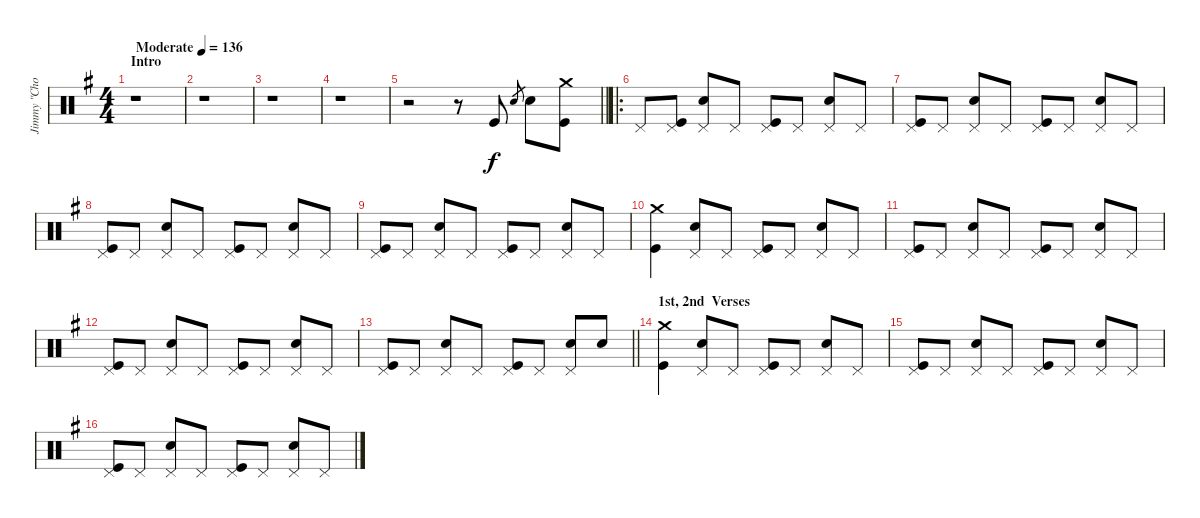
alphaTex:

\track ("Jimmy \"Chocolate\" Chalfant" "Jimmy \"Cho") {instrument percussion}
\staff {score}
\articulation defaults
\ts (4 4)
\section ("" "Intro")
\tempo (136 "Moderate")
\clef neutral
\ks g
r.1{dy f} |
r.1 |
r.1 |
r.1 |
\barLineRight lightlight
r.2 r.8 "Kick (hit)".8 "Snare (hit) 2".8{gr} "Snare (hit) 2".8 ("Crash medium (hit)" "Kick (hit)").8 |
\ro "Pedal Hi-Hat (hit)".8
("Pedal Hi-Hat (hit)" "Kick (hit)").8 ("Pedal Hi-Hat (hit)" "Snare (hit) 2").8 "Pedal Hi-Hat (hit)".8 ("Pedal Hi-Hat (hit)" "Kick (hit)").8 "Pedal Hi-Hat (hit)".8 ("Pedal Hi-Hat (hit)" "Snare (hit) 2").8 "Pedal Hi-Hat (hit)".8 |
("Pedal Hi-Hat (hit)" "Kick (hit)").8 "Pedal Hi-Hat (hit)".8 ("Pedal Hi-Hat (hit)" "Snare (hit) 2").8 "Pedal Hi-Hat (hit)".8 ("Pedal Hi-Hat (hit)" "Kick (hit)").8 "Pedal Hi-Hat (hit)".8 ("Pedal Hi-Hat (hit)" "Snare (hit) 2").8 "Pedal Hi-Hat (hit)".8 |
("Pedal Hi-Hat (hit)" "Kick (hit)").8 "Pedal Hi-Hat (hit)".8 ("Pedal Hi-Hat (hit)" "Snare (hit) 2").8 "Pedal Hi-Hat (hit)".8 ("Pedal Hi-Hat (hit)" "Kick (hit)").8 "Pedal Hi-Hat (hit)".8 ("Pedal Hi-Hat (hit)" "Snare (hit) 2").8 "Pedal Hi-Hat (hit)".8 |
("Pedal Hi-Hat (hit)" "Kick (hit)").8 "Pedal Hi-Hat (hit)".8 ("Pedal Hi-Hat (hit)" "Snare (hit) 2").8 "Pedal Hi-Hat (hit)".8 ("Pedal Hi-Hat (hit)" "Kick (hit)").8 "Pedal Hi-Hat (hit)".8 ("Pedal Hi-Hat (hit)" "Snare (hit) 2").8 "Pedal Hi-Hat (hit)".8 |
("Crash medium (hit)" "Kick (hit)").4 ("Pedal Hi-Hat (hit)" "Snare (hit) 2").8 "Pedal Hi-Hat (hit)".8 ("Pedal Hi-Hat (hit)" "Kick (hit)").8 "Pedal Hi-Hat (hit)".8 ("Pedal Hi-Hat (hit)" "Snare (hit) 2").8 "Pedal Hi-Hat (hit)".8 |
("Pedal Hi-Hat (hit)" "Kick (hit)").8 "Pedal Hi-Hat (hit)".8 ("Pedal Hi-Hat (hit)" "Snare (hit) 2").8 "Pedal Hi-Hat (hit)".8 ("Pedal Hi-Hat (hit)" "Kick (hit)").8 "Pedal Hi-Hat (hit)".8 ("Pedal Hi-Hat (hit)" "Snare (hit) 2").8 "Pedal Hi-Hat (hit)".8 |
("Pedal Hi-Hat (hit)" "Kick (hit)").8 "Pedal Hi-Hat (hit)".8 ("Pedal Hi-Hat (hit)" "Snare (hit) 2").8 "Pedal Hi-Hat (hit)".8 ("Pedal Hi-Hat (hit)" "Kick (hit)").8 "Pedal Hi-Hat (hit)".8 ("Pedal Hi-Hat (hit)" "Snare (hit) 2").8 "Pedal Hi-Hat (hit)".8 |
\barLineRight lightlight
("Pedal Hi-Hat (hit)" "Kick (hit)").8 "Pedal Hi-Hat (hit)".8 ("Pedal Hi-Hat (hit)" "Snare (hit) 2").8 "Pedal Hi-Hat (hit)".8 ("Pedal Hi-Hat (hit)" "Kick (hit)").8 "Pedal Hi-Hat (hit)".8 ("Pedal Hi-Hat (hit)" "Snare (hit) 2").8 "Snare (hit) 2".8 |
\section ("" "1st, 2nd  Verses")
("Crash medium (hit)" "Kick (hit)").4 ("Pedal Hi-Hat (hit)" "Snare (hit) 2").8 "Pedal Hi-Hat (hit)".8 ("Pedal Hi-Hat (hit)" "Kick (hit)").8 "Pedal Hi-Hat (hit)".8 ("Pedal Hi-Hat (hit)" "Snare (hit) 2").8 "Pedal Hi-Hat (hit)".8 |
("Pedal Hi-Hat (hit)" "Kick (hit)").8 "Pedal Hi-Hat (hit)".8 ("Pedal Hi-Hat (hit)" "Snare (hit) 2").8 "Pedal Hi-Hat (hit)".8 ("Pedal Hi-Hat (hit)" "Kick (hit)").8 "Pedal Hi-Hat (hit)".8 ("Pedal Hi-Hat (hit)" "Snare (hit) 2").8 "Pedal Hi-Hat (hit)".8 |
("Pedal Hi-Hat (hit)" "Kick (hit)").8 "Pedal Hi-Hat (hit)".8 ("Pedal Hi-Hat (hit)" "Snare (hit) 2").8 "Pedal Hi-Hat (hit)".8 ("Pedal Hi-Hat (hit)" "Kick (hit)").8 "Pedal Hi-Hat (hit)".8 ("Pedal Hi-Hat (hit)" "Snare (hit) 2").8 "Pedal Hi-Hat (hit)".8
